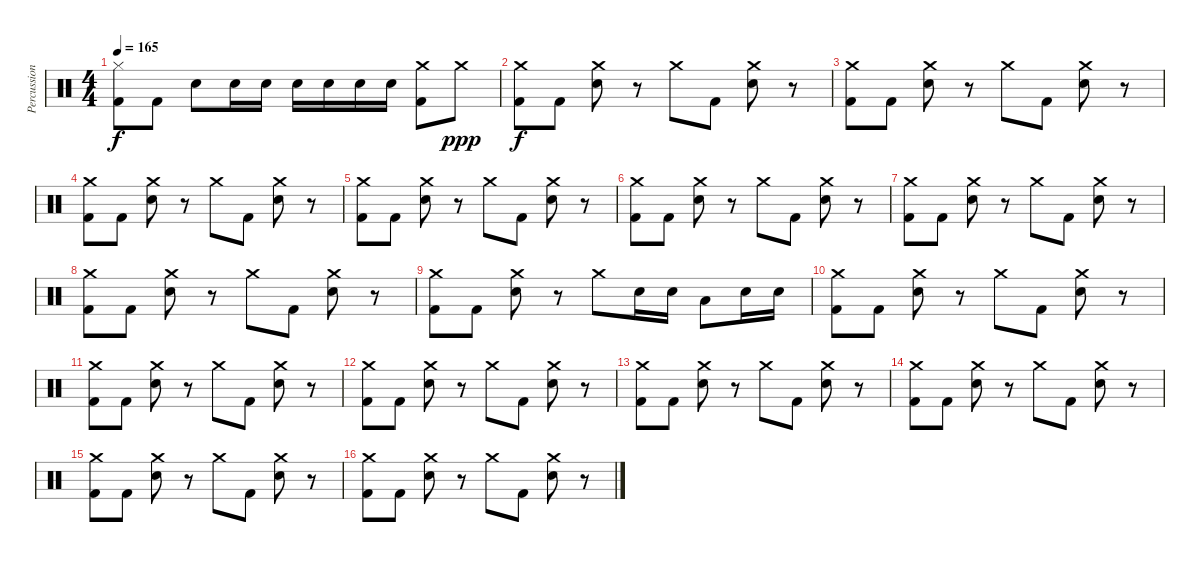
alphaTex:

\track ("Percussion" "Percussion") {instrument percussion}
\staff {score}
\articulation defaults
\ts (4 4)
\tempo 165
\clef neutral
\ks c
("Hi-Hat (closed)" "Kick (hit) 2").8{dy f} "Kick (hit) 2".8 "Electric Snare (hit)".8 "Electric Snare (hit)".16 "Electric Snare (hit)".16 "Electric Snare (hit)".16 "Electric Snare (hit)".16 "Electric Snare (hit)".16 "Electric Snare (hit)".16 ("Crash medium (hit)" "Kick (hit) 2").8 "Crash medium (hit)".8{dy ppp} |
("Crash medium (hit)" "Kick (hit) 2").8{dy f} "Kick (hit) 2".8 ("Crash medium (hit)" "Electric Snare (hit)").8 r.8 "Crash medium (hit)".8 "Kick (hit) 2".8 ("Crash medium (hit)" "Electric Snare (hit)").8 r.8 |
("Crash medium (hit)" "Kick (hit) 2").8 "Kick (hit) 2".8 ("Crash medium (hit)" "Electric Snare (hit)").8 r.8 "Crash medium (hit)".8 "Kick (hit) 2".8 ("Crash medium (hit)" "Electric Snare (hit)").8 r.8 |
("Crash medium (hit)" "Kick (hit) 2").8 "Kick (hit) 2".8 ("Crash medium (hit)" "Electric Snare (hit)").8 r.8 "Crash medium (hit)".8 "Kick (hit) 2".8 ("Crash medium (hit)" "Electric Snare (hit)").8 r.8 |
("Crash medium (hit)" "Kick (hit) 2").8 "Kick (hit) 2".8 ("Crash medium (hit)" "Electric Snare (hit)").8 r.8 "Crash medium (hit)".8 "Kick (hit) 2".8 ("Crash medium (hit)" "Electric Snare (hit)").8 r.8 |
("Crash medium (hit)" "Kick (hit) 2").8 "Kick (hit) 2".8 ("Crash medium (hit)" "Electric Snare (hit)").8 r.8 "Crash medium (hit)".8 "Kick (hit) 2".8 ("Crash medium (hit)" "Electric Snare (hit)").8 r.8 |
("Crash medium (hit)" "Kick (hit) 2").8 "Kick (hit) 2".8 ("Crash medium (hit)" "Electric Snare (hit)").8 r.8 "Crash medium (hit)".8 "Kick (hit) 2".8 ("Crash medium (hit)" "Electric Snare (hit)").8 r.8 |
("Crash medium (hit)" "Kick (hit) 2").8 "Kick (hit) 2".8 ("Crash medium (hit)" "Electric Snare (hit)").8 r.8 "Crash medium (hit)".8 "Kick (hit) 2".8 ("Crash medium (hit)" "Electric Snare (hit)").8 r.8 |
("Crash medium (hit)" "Kick (hit) 2").8 "Kick (hit) 2".8 ("Crash medium (hit)" "Electric Snare (hit)").8 r.8 "Crash medium (hit)".8 "Electric Snare (hit)".16 "Electric Snare (hit)".16 "Low Floor Tom (hit)".8 "Electric Snare (hit)".16 "Electric Snare (hit)".16 |
("Crash medium (hit)" "Kick (hit) 2").8 "Kick (hit) 2".8 ("Crash medium (hit)" "Electric Snare (hit)").8 r.8 "Crash medium (hit)".8 "Kick (hit) 2".8 ("Crash medium (hit)" "Electric Snare (hit)").8 r.8 |
("Crash medium (hit)" "Kick (hit) 2").8 "Kick (hit) 2".8 ("Crash medium (hit)" "Electric Snare (hit)").8 r.8 "Crash medium (hit)".8 "Kick (hit) 2".8 ("Crash medium (hit)" "Electric Snare (hit)").8 r.8 |
("Crash medium (hit)" "Kick (hit) 2").8 "Kick (hit) 2".8 ("Crash medium (hit)" "Electric Snare (hit)").8 r.8 "Crash medium (hit)".8 "Kick (hit) 2".8 ("Crash medium (hit)" "Electric Snare (hit)").8 r.8 |
("Crash medium (hit)" "Kick (hit) 2").8 "Kick (hit) 2".8 ("Crash medium (hit)" "Electric Snare (hit)").8 r.8 "Crash medium (hit)".8 "Kick (hit) 2".8 ("Crash medium (hit)" "Electric Snare (hit)").8 r.8 |
("Crash medium (hit)" "Kick (hit) 2").8 "Kick (hit) 2".8 ("Crash medium (hit)" "Electric Snare (hit)").8 r.8 "Crash medium (hit)".8 "Kick (hit) 2".8 ("Crash medium (hit)" "Electric Snare (hit)").8 r.8 |
("Crash medium (hit)" "Kick (hit) 2").8 "Kick (hit) 2".8 ("Crash medium (hit)" "Electric Snare (hit)").8 r.8 "Crash medium (hit)".8 "Kick (hit) 2".8 ("Crash medium (hit)" "Electric Snare (hit)").8 r.8 |
("Crash medium (hit)" "Kick (hit) 2").8 "Kick (hit) 2".8 ("Crash medium (hit)" "Electric Snare (hit)").8 r.8 "Crash medium (hit)".8 "Kick (hit) 2".8 ("Crash medium (hit)" "Electric Snare (hit)").8 r.8
